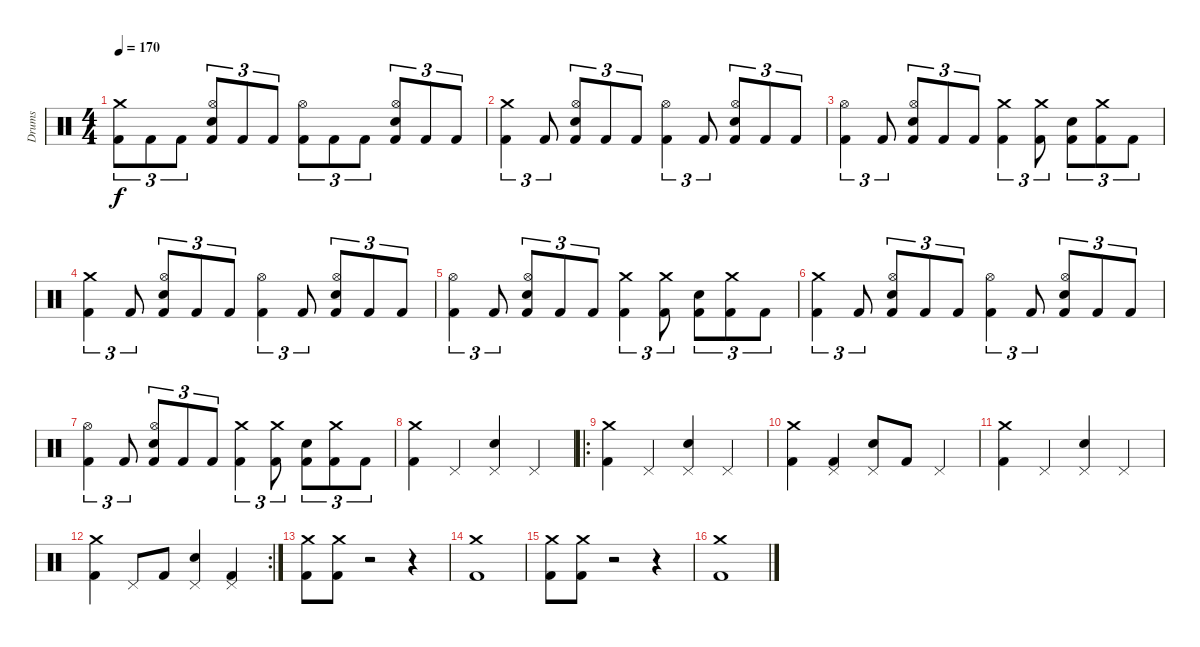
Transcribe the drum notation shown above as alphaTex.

\track ("Drums" "Drums") {instrument percussion}
\staff {score}
\articulation defaults
\ts (4 4)
\tempo 170
\clef neutral
\ks c
("Crash medium (hit)" "Kick (hit) 2").8{tu (3 2) dy f} "Kick (hit) 2".8{tu (3 2)} "Kick (hit) 2".8{tu (3 2)} ("Hi-Hat (open)" "Snare (hit) 2" "Kick (hit) 2").8{tu (3 2)} "Kick (hit) 2".8{tu (3 2)} "Kick (hit) 2".8{tu (3 2)} ("Hi-Hat (open)" "Kick (hit) 2").8{tu (3 2)} "Kick (hit) 2".8{tu (3 2)} "Kick (hit) 2".8{tu (3 2)} ("Hi-Hat (open)" "Snare (hit) 2" "Kick (hit) 2").8{tu (3 2)} "Kick (hit) 2".8{tu (3 2)} "Kick (hit) 2".8{tu (3 2)} |
("Crash medium (hit)" "Kick (hit) 2").4{tu (3 2)} "Kick (hit) 2".8{tu (3 2)} ("Hi-Hat (open)" "Snare (hit) 2" "Kick (hit) 2").8{tu (3 2)} "Kick (hit) 2".8{tu (3 2)} "Kick (hit) 2".8{tu (3 2)} ("Hi-Hat (open)" "Kick (hit) 2").4{tu (3 2)} "Kick (hit) 2".8{tu (3 2)} ("Hi-Hat (open)" "Snare (hit) 2" "Kick (hit) 2").8{tu (3 2)} "Kick (hit) 2".8{tu (3 2)} "Kick (hit) 2".8{tu (3 2)} |
("Hi-Hat (open)" "Kick (hit) 2").4{tu (3 2)} "Kick (hit) 2".8{tu (3 2)} ("Hi-Hat (open)" "Snare (hit) 2" "Kick (hit) 2").8{tu (3 2)} "Kick (hit) 2".8{tu (3 2)} "Kick (hit) 2".8{tu (3 2)} ("Crash medium (hit)" "Kick (hit) 2").4{tu (3 2)} ("Crash medium (hit)" "Kick (hit) 2").8{tu (3 2)} ("Snare (hit) 2" "Kick (hit) 2").8{tu (3 2)} ("Crash medium (hit)" "Kick (hit) 2").8{tu (3 2)} "Kick (hit) 2".8{tu (3 2)} |
("Crash medium (hit)" "Kick (hit) 2").4{tu (3 2)} "Kick (hit) 2".8{tu (3 2)} ("Hi-Hat (open)" "Snare (hit) 2" "Kick (hit) 2").8{tu (3 2)} "Kick (hit) 2".8{tu (3 2)} "Kick (hit) 2".8{tu (3 2)} ("Hi-Hat (open)" "Kick (hit) 2").4{tu (3 2)} "Kick (hit) 2".8{tu (3 2)} ("Hi-Hat (open)" "Snare (hit) 2" "Kick (hit) 2").8{tu (3 2)} "Kick (hit) 2".8{tu (3 2)} "Kick (hit) 2".8{tu (3 2)} |
("Hi-Hat (open)" "Kick (hit) 2").4{tu (3 2)} "Kick (hit) 2".8{tu (3 2)} ("Hi-Hat (open)" "Snare (hit) 2" "Kick (hit) 2").8{tu (3 2)} "Kick (hit) 2".8{tu (3 2)} "Kick (hit) 2".8{tu (3 2)} ("Crash medium (hit)" "Kick (hit) 2").4{tu (3 2)} ("Crash medium (hit)" "Kick (hit) 2").8{tu (3 2)} ("Snare (hit) 2" "Kick (hit) 2").8{tu (3 2)} ("Crash medium (hit)" "Kick (hit) 2").8{tu (3 2)} "Kick (hit) 2".8{tu (3 2)} |
("Crash medium (hit)" "Kick (hit) 2").4{tu (3 2)} "Kick (hit) 2".8{tu (3 2)} ("Hi-Hat (open)" "Snare (hit) 2" "Kick (hit) 2").8{tu (3 2)} "Kick (hit) 2".8{tu (3 2)} "Kick (hit) 2".8{tu (3 2)} ("Hi-Hat (open)" "Kick (hit) 2").4{tu (3 2)} "Kick (hit) 2".8{tu (3 2)} ("Hi-Hat (open)" "Snare (hit) 2" "Kick (hit) 2").8{tu (3 2)} "Kick (hit) 2".8{tu (3 2)} "Kick (hit) 2".8{tu (3 2)} |
("Hi-Hat (open)" "Kick (hit) 2").4{tu (3 2)} "Kick (hit) 2".8{tu (3 2)} ("Hi-Hat (open)" "Snare (hit) 2" "Kick (hit) 2").8{tu (3 2)} "Kick (hit) 2".8{tu (3 2)} "Kick (hit) 2".8{tu (3 2)} ("Crash medium (hit)" "Kick (hit) 2").4{tu (3 2)} ("Crash medium (hit)" "Kick (hit) 2").8{tu (3 2)} ("Snare (hit) 2" "Kick (hit) 2").8{tu (3 2)} ("Crash medium (hit)" "Kick (hit) 2").8{tu (3 2)} "Kick (hit) 2".8{tu (3 2)} |
("Crash medium (hit)" "Kick (hit) 2").4 "Pedal Hi-Hat (hit)".4 ("Pedal Hi-Hat (hit)" "Snare (hit) 2").4 "Pedal Hi-Hat (hit)".4 |
\ro
("Crash medium (hit)" "Kick (hit) 2").4 "Pedal Hi-Hat (hit)".4 ("Pedal Hi-Hat (hit)" "Snare (hit) 2").4 "Pedal Hi-Hat (hit)".4 |
("Crash medium (hit)" "Kick (hit) 2").4 ("Pedal Hi-Hat (hit)" "Kick (hit) 2").4 ("Pedal Hi-Hat (hit)" "Snare (hit) 2").8 "Kick (hit) 2".8 "Pedal Hi-Hat (hit)".4 |
("Crash medium (hit)" "Kick (hit) 2").4 "Pedal Hi-Hat (hit)".4 ("Pedal Hi-Hat (hit)" "Snare (hit) 2").4 "Pedal Hi-Hat (hit)".4 |
\rc 2
("Crash medium (hit)" "Kick (hit) 2").4 "Pedal Hi-Hat (hit)".8 "Kick (hit) 2".8 ("Pedal Hi-Hat (hit)" "Snare (hit) 2").4 ("Pedal Hi-Hat (hit)" "Kick (hit) 2").4 |
("Crash medium (hit)" "Kick (hit) 2").8 ("Crash medium (hit)" "Kick (hit) 2").8 r.2 r.4 |
("Crash medium (hit)" "Kick (hit) 2").1 |
("Crash medium (hit)" "Kick (hit) 2").8 ("Crash medium (hit)" "Kick (hit) 2").8 r.2 r.4 |
("Crash medium (hit)" "Kick (hit) 2").1
